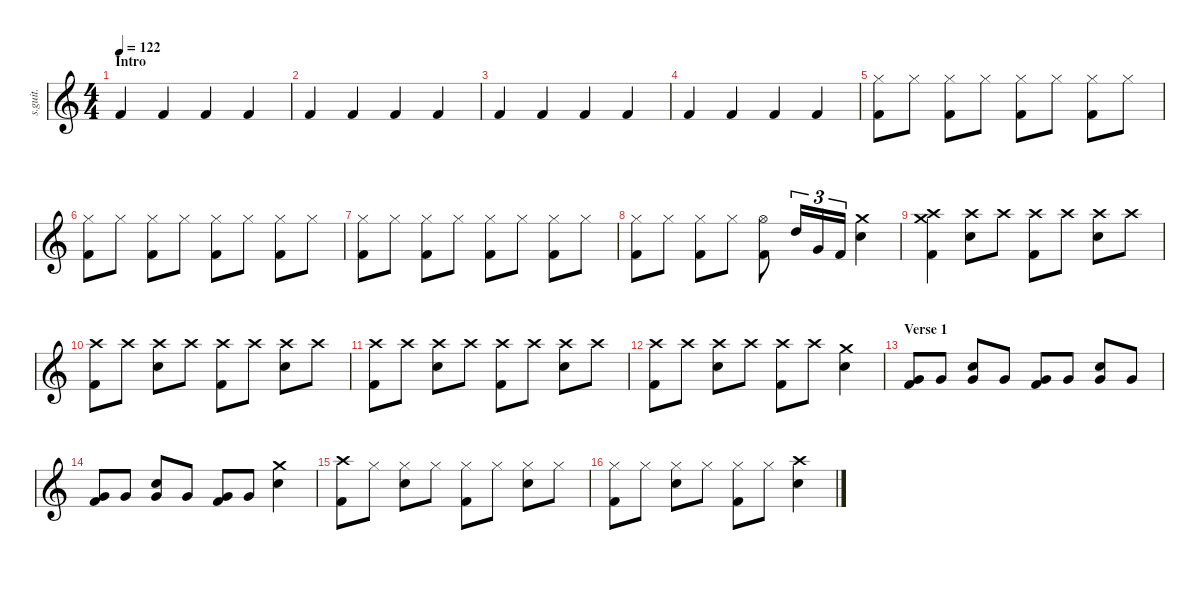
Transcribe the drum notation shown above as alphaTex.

\defaultSystemsLayout 4
\hideDynamics
\bracketExtendMode nobrackets
\track ("Neil Sanderson" "s.guit.") {instrument percussion}
\staff {score}
\articulation defaults
\ts (4 4)
\beaming (8 2 2 2 2)
\section ("" "Intro")
\tempo 122
\clef g2
\ks c "Kick (hit) 2".4{lyrics (0 "") lyrics (1 "") lyrics (2 "") lyrics (3 "") lyrics (4 "") dy f} "Kick (hit) 2".4{lyrics (0 "") lyrics (1 "") lyrics (2 "") lyrics (3 "") lyrics (4 "")} "Kick (hit) 2".4{lyrics (0 "") lyrics (1 "") lyrics (2 "") lyrics (3 "") lyrics (4 "")} "Kick (hit) 2".4{lyrics (0 "") lyrics (1 "") lyrics (2 "") lyrics (3 "") lyrics (4 "")}
|
"Kick (hit) 2".4{lyrics (0 "") lyrics (1 "") lyrics (2 "") lyrics (3 "") lyrics (4 "")} "Kick (hit) 2".4{lyrics (0 "") lyrics (1 "") lyrics (2 "") lyrics (3 "") lyrics (4 "")} "Kick (hit) 2".4{lyrics (0 "") lyrics (1 "") lyrics (2 "") lyrics (3 "") lyrics (4 "")} "Kick (hit) 2".4{lyrics (0 "") lyrics (1 "") lyrics (2 "") lyrics (3 "") lyrics (4 "")} |
"Kick (hit) 2".4{lyrics (0 "") lyrics (1 "") lyrics (2 "") lyrics (3 "") lyrics (4 "")} "Kick (hit) 2".4{lyrics (0 "") lyrics (1 "") lyrics (2 "") lyrics (3 "") lyrics (4 "")} "Kick (hit) 2".4{lyrics (0 "") lyrics (1 "") lyrics (2 "") lyrics (3 "") lyrics (4 "")} "Kick (hit) 2".4{lyrics (0 "") lyrics (1 "") lyrics (2 "") lyrics (3 "") lyrics (4 "")} |
"Kick (hit) 2".4{lyrics (0 "") lyrics (1 "") lyrics (2 "") lyrics (3 "") lyrics (4 "")} "Kick (hit) 2".4{lyrics (0 "") lyrics (1 "") lyrics (2 "") lyrics (3 "") lyrics (4 "")} "Kick (hit) 2".4{lyrics (0 "") lyrics (1 "") lyrics (2 "") lyrics (3 "") lyrics (4 "")} "Kick (hit) 2".4{lyrics (0 "") lyrics (1 "") lyrics (2 "") lyrics (3 "") lyrics (4 "")} |
("Hi-Hat (closed)" "Kick (hit) 2").8{lyrics (0 "") lyrics (1 "") lyrics (2 "") lyrics (3 "") lyrics (4 "")} "Hi-Hat (closed)".8{lyrics (0 "") lyrics (1 "") lyrics (2 "") lyrics (3 "") lyrics (4 "")} ("Hi-Hat (closed)" "Kick (hit) 2").8{lyrics (0 "") lyrics (1 "") lyrics (2 "") lyrics (3 "") lyrics (4 "")} "Hi-Hat (closed)".8{lyrics (0 "") lyrics (1 "") lyrics (2 "") lyrics (3 "") lyrics (4 "")} ("Hi-Hat (closed)" "Kick (hit) 2").8{lyrics (0 "") lyrics (1 "") lyrics (2 "") lyrics (3 "") lyrics (4 "")} "Hi-Hat (closed)".8{lyrics (0 "") lyrics (1 "") lyrics (2 "") lyrics (3 "") lyrics (4 "")} ("Hi-Hat (closed)" "Kick (hit) 2").8{lyrics (0 "") lyrics (1 "") lyrics (2 "") lyrics (3 "") lyrics (4 "")} "Hi-Hat (closed)".8{lyrics (0 "") lyrics (1 "") lyrics (2 "") lyrics (3 "") lyrics (4 "")} |
("Hi-Hat (closed)" "Kick (hit) 2").8{lyrics (0 "") lyrics (1 "") lyrics (2 "") lyrics (3 "") lyrics (4 "")} "Hi-Hat (closed)".8{lyrics (0 "") lyrics (1 "") lyrics (2 "") lyrics (3 "") lyrics (4 "")} ("Hi-Hat (closed)" "Kick (hit) 2").8{lyrics (0 "") lyrics (1 "") lyrics (2 "") lyrics (3 "") lyrics (4 "")} "Hi-Hat (closed)".8{lyrics (0 "") lyrics (1 "") lyrics (2 "") lyrics (3 "") lyrics (4 "")} ("Hi-Hat (closed)" "Kick (hit) 2").8{lyrics (0 "") lyrics (1 "") lyrics (2 "") lyrics (3 "") lyrics (4 "")} "Hi-Hat (closed)".8{lyrics (0 "") lyrics (1 "") lyrics (2 "") lyrics (3 "") lyrics (4 "")} ("Hi-Hat (closed)" "Kick (hit) 2").8{lyrics (0 "") lyrics (1 "") lyrics (2 "") lyrics (3 "") lyrics (4 "")} "Hi-Hat (closed)".8{lyrics (0 "") lyrics (1 "") lyrics (2 "") lyrics (3 "") lyrics (4 "")} |
("Hi-Hat (closed)" "Kick (hit) 2").8{lyrics (0 "") lyrics (1 "") lyrics (2 "") lyrics (3 "") lyrics (4 "")} "Hi-Hat (closed)".8{lyrics (0 "") lyrics (1 "") lyrics (2 "") lyrics (3 "") lyrics (4 "")} ("Hi-Hat (closed)" "Kick (hit) 2").8{lyrics (0 "") lyrics (1 "") lyrics (2 "") lyrics (3 "") lyrics (4 "")} "Hi-Hat (closed)".8{lyrics (0 "") lyrics (1 "") lyrics (2 "") lyrics (3 "") lyrics (4 "")} ("Hi-Hat (closed)" "Kick (hit) 2").8{lyrics (0 "") lyrics (1 "") lyrics (2 "") lyrics (3 "") lyrics (4 "")} "Hi-Hat (closed)".8{lyrics (0 "") lyrics (1 "") lyrics (2 "") lyrics (3 "") lyrics (4 "")} ("Hi-Hat (closed)" "Kick (hit) 2").8{lyrics (0 "") lyrics (1 "") lyrics (2 "") lyrics (3 "") lyrics (4 "")} "Hi-Hat (closed)".8{lyrics (0 "") lyrics (1 "") lyrics (2 "") lyrics (3 "") lyrics (4 "")} |
("Hi-Hat (closed)" "Kick (hit) 2").8{lyrics (0 "") lyrics (1 "") lyrics (2 "") lyrics (3 "") lyrics (4 "")} "Hi-Hat (closed)".8{lyrics (0 "") lyrics (1 "") lyrics (2 "") lyrics (3 "") lyrics (4 "")} ("Hi-Hat (closed)" "Kick (hit) 2").8{lyrics (0 "") lyrics (1 "") lyrics (2 "") lyrics (3 "") lyrics (4 "")} "Hi-Hat (closed)".8{lyrics (0 "") lyrics (1 "") lyrics (2 "") lyrics (3 "") lyrics (4 "")} ("Hi-Hat (open)" "Kick (hit) 2").8{lyrics (0 "") lyrics (1 "") lyrics (2 "") lyrics (3 "") lyrics (4 "")} "High Tom (hit)".16{tu (3 2) lyrics (0 "") lyrics (1 "") lyrics (2 "") lyrics (3 "") lyrics (4 "")} "Very Low Tom (hit)".16{tu (3 2) lyrics (0 "") lyrics (1 "") lyrics (2 "") lyrics (3 "") lyrics (4 "")} "Kick (hit) 2".16{tu (3 2) lyrics (0 "") lyrics (1 "") lyrics (2 "") lyrics (3 "") lyrics (4 "")} ("Crash medium (hit)" "Snare (hit) 2").4{lyrics (0 "") lyrics (1 "") lyrics (2 "") lyrics (3 "") lyrics (4 "")} |
("Crash high (hit)" "Crash medium (hit)" "Kick (hit) 2").4{lyrics (0 "") lyrics (1 "") lyrics (2 "") lyrics (3 "") lyrics (4 "")} ("Crash high (hit)" "Snare (hit) 2").8{lyrics (0 "") lyrics (1 "") lyrics (2 "") lyrics (3 "") lyrics (4 "")} "Crash high (hit)".8{lyrics (0 "") lyrics (1 "") lyrics (2 "") lyrics (3 "") lyrics (4 "")} ("Crash high (hit)" "Kick (hit) 2").8{lyrics (0 "") lyrics (1 "") lyrics (2 "") lyrics (3 "") lyrics (4 "")} "Crash high (hit)".8{lyrics (0 "") lyrics (1 "") lyrics (2 "") lyrics (3 "") lyrics (4 "")} ("Crash high (hit)" "Snare (hit) 2").8{lyrics (0 "") lyrics (1 "") lyrics (2 "") lyrics (3 "") lyrics (4 "")} "Crash high (hit)".8{lyrics (0 "") lyrics (1 "") lyrics (2 "") lyrics (3 "") lyrics (4 "")} |
("Crash high (hit)" "Kick (hit) 2").8{lyrics (0 "") lyrics (1 "") lyrics (2 "") lyrics (3 "") lyrics (4 "")} "Crash high (hit)".8{lyrics (0 "") lyrics (1 "") lyrics (2 "") lyrics (3 "") lyrics (4 "")} ("Crash high (hit)" "Snare (hit) 2").8{lyrics (0 "") lyrics (1 "") lyrics (2 "") lyrics (3 "") lyrics (4 "")} "Crash high (hit)".8{lyrics (0 "") lyrics (1 "") lyrics (2 "") lyrics (3 "") lyrics (4 "")} ("Crash high (hit)" "Kick (hit) 2").8{lyrics (0 "") lyrics (1 "") lyrics (2 "") lyrics (3 "") lyrics (4 "")} "Crash high (hit)".8{lyrics (0 "") lyrics (1 "") lyrics (2 "") lyrics (3 "") lyrics (4 "")} ("Crash high (hit)" "Snare (hit) 2").8{lyrics (0 "") lyrics (1 "") lyrics (2 "") lyrics (3 "") lyrics (4 "")} "Crash high (hit)".8{lyrics (0 "") lyrics (1 "") lyrics (2 "") lyrics (3 "") lyrics (4 "")} |
("Crash high (hit)" "Kick (hit) 2").8{lyrics (0 "") lyrics (1 "") lyrics (2 "") lyrics (3 "") lyrics (4 "")} "Crash high (hit)".8{lyrics (0 "") lyrics (1 "") lyrics (2 "") lyrics (3 "") lyrics (4 "")} ("Crash high (hit)" "Snare (hit) 2").8{lyrics (0 "") lyrics (1 "") lyrics (2 "") lyrics (3 "") lyrics (4 "")} "Crash high (hit)".8{lyrics (0 "") lyrics (1 "") lyrics (2 "") lyrics (3 "") lyrics (4 "")} ("Crash high (hit)" "Kick (hit) 2").8{lyrics (0 "") lyrics (1 "") lyrics (2 "") lyrics (3 "") lyrics (4 "")} "Crash high (hit)".8{lyrics (0 "") lyrics (1 "") lyrics (2 "") lyrics (3 "") lyrics (4 "")} ("Crash high (hit)" "Snare (hit) 2").8{lyrics (0 "") lyrics (1 "") lyrics (2 "") lyrics (3 "") lyrics (4 "")} "Crash high (hit)".8{lyrics (0 "") lyrics (1 "") lyrics (2 "") lyrics (3 "") lyrics (4 "")} |
("Crash high (hit)" "Kick (hit) 2").8{lyrics (0 "") lyrics (1 "") lyrics (2 "") lyrics (3 "") lyrics (4 "")} "Crash high (hit)".8{lyrics (0 "") lyrics (1 "") lyrics (2 "") lyrics (3 "") lyrics (4 "")} ("Crash high (hit)" "Snare (hit) 2").8{lyrics (0 "") lyrics (1 "") lyrics (2 "") lyrics (3 "") lyrics (4 "")} "Crash high (hit)".8{lyrics (0 "") lyrics (1 "") lyrics (2 "") lyrics (3 "") lyrics (4 "")} ("Crash high (hit)" "Kick (hit) 2").8{lyrics (0 "") lyrics (1 "") lyrics (2 "") lyrics (3 "") lyrics (4 "")} "Crash high (hit)".8{lyrics (0 "") lyrics (1 "") lyrics (2 "") lyrics (3 "") lyrics (4 "")} ("Crash medium (hit)" "Snare (hit) 2").4{lyrics (0 "") lyrics (1 "") lyrics (2 "") lyrics (3 "") lyrics (4 "")} |
\section ("" "Verse 1")
("Very Low Tom (hit)" "Kick (hit) 2").8{lyrics (0 "") lyrics (1 "") lyrics (2 "") lyrics (3 "") lyrics (4 "")} "Very Low Tom (hit)".8{lyrics (0 "") lyrics (1 "") lyrics (2 "") lyrics (3 "") lyrics (4 "")} ("Snare (hit) 2" "Very Low Tom (hit)").8{lyrics (0 "") lyrics (1 "") lyrics (2 "") lyrics (3 "") lyrics (4 "")} "Very Low Tom (hit)".8{lyrics (0 "") lyrics (1 "") lyrics (2 "") lyrics (3 "") lyrics (4 "")} ("Very Low Tom (hit)" "Kick (hit) 2").8{lyrics (0 "") lyrics (1 "") lyrics (2 "") lyrics (3 "") lyrics (4 "")} "Very Low Tom (hit)".8{lyrics (0 "") lyrics (1 "") lyrics (2 "") lyrics (3 "") lyrics (4 "")} ("Snare (hit) 2" "Very Low Tom (hit)").8{lyrics (0 "") lyrics (1 "") lyrics (2 "") lyrics (3 "") lyrics (4 "")} "Very Low Tom (hit)".8{lyrics (0 "") lyrics (1 "") lyrics (2 "") lyrics (3 "") lyrics (4 "")} |
("Very Low Tom (hit)" "Kick (hit) 2").8{lyrics (0 "") lyrics (1 "") lyrics (2 "") lyrics (3 "") lyrics (4 "")} "Very Low Tom (hit)".8{lyrics (0 "") lyrics (1 "") lyrics (2 "") lyrics (3 "") lyrics (4 "")} ("Snare (hit) 2" "Very Low Tom (hit)").8{lyrics (0 "") lyrics (1 "") lyrics (2 "") lyrics (3 "") lyrics (4 "")} "Very Low Tom (hit)".8{lyrics (0 "") lyrics (1 "") lyrics (2 "") lyrics (3 "") lyrics (4 "")} ("Very Low Tom (hit)" "Kick (hit) 2").8{lyrics (0 "") lyrics (1 "") lyrics (2 "") lyrics (3 "") lyrics (4 "")} "Very Low Tom (hit)".8{lyrics (0 "") lyrics (1 "") lyrics (2 "") lyrics (3 "") lyrics (4 "")} ("Crash medium (hit)" "Snare (hit) 2").4{lyrics (0 "") lyrics (1 "") lyrics (2 "") lyrics (3 "") lyrics (4 "")} |
("Crash high (hit)" "Kick (hit) 2").8{lyrics (0 "") lyrics (1 "") lyrics (2 "") lyrics (3 "") lyrics (4 "")} "Hi-Hat (closed)".8{lyrics (0 "") lyrics (1 "") lyrics (2 "") lyrics (3 "") lyrics (4 "")} ("Hi-Hat (closed)" "Snare (hit) 2").8{lyrics (0 "") lyrics (1 "") lyrics (2 "") lyrics (3 "") lyrics (4 "")} "Hi-Hat (closed)".8{lyrics (0 "") lyrics (1 "") lyrics (2 "") lyrics (3 "") lyrics (4 "")} ("Hi-Hat (closed)" "Kick (hit) 2").8{lyrics (0 "") lyrics (1 "") lyrics (2 "") lyrics (3 "") lyrics (4 "")} "Hi-Hat (closed)".8{lyrics (0 "") lyrics (1 "") lyrics (2 "") lyrics (3 "") lyrics (4 "")} ("Hi-Hat (closed)" "Snare (hit) 2").8{lyrics (0 "") lyrics (1 "") lyrics (2 "") lyrics (3 "") lyrics (4 "")} "Hi-Hat (closed)".8{lyrics (0 "") lyrics (1 "") lyrics (2 "") lyrics (3 "") lyrics (4 "")} |
("Hi-Hat (closed)" "Kick (hit) 2").8{lyrics (0 "") lyrics (1 "") lyrics (2 "") lyrics (3 "") lyrics (4 "")} "Hi-Hat (closed)".8{lyrics (0 "") lyrics (1 "") lyrics (2 "") lyrics (3 "") lyrics (4 "")} ("Hi-Hat (closed)" "Snare (hit) 2").8{lyrics (0 "") lyrics (1 "") lyrics (2 "") lyrics (3 "") lyrics (4 "")} "Hi-Hat (closed)".8{lyrics (0 "") lyrics (1 "") lyrics (2 "") lyrics (3 "") lyrics (4 "")} ("Hi-Hat (closed)" "Kick (hit) 2").8{lyrics (0 "") lyrics (1 "") lyrics (2 "") lyrics (3 "") lyrics (4 "")} "Hi-Hat (closed)".8{lyrics (0 "") lyrics (1 "") lyrics (2 "") lyrics (3 "") lyrics (4 "")} ("Crash high (hit)" "Snare (hit) 2").4{lyrics (0 "") lyrics (1 "") lyrics (2 "") lyrics (3 "") lyrics (4 "")}
